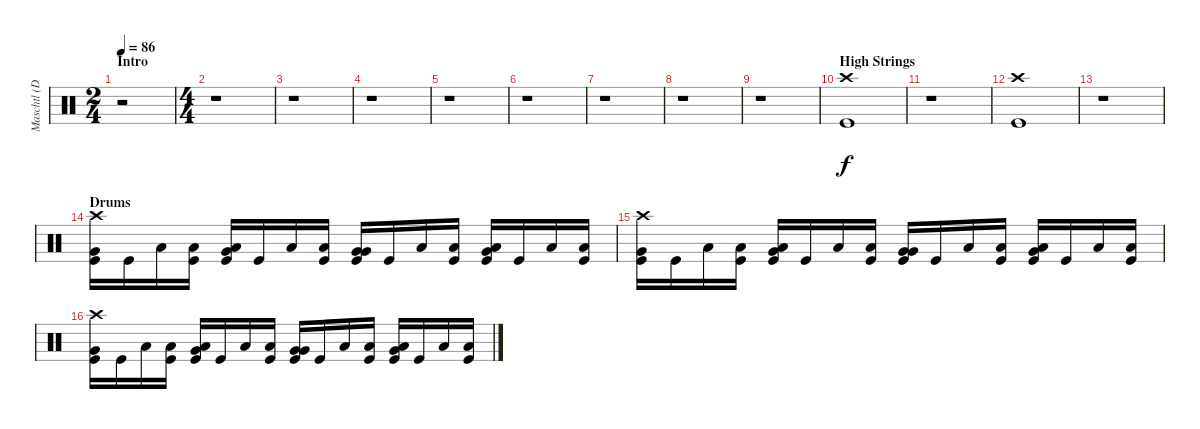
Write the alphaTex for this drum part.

\track ("Maschtl (Drums)" "Maschtl (D") {instrument percussion}
\staff {score}
\articulation defaults
\ts (2 4)
\section ("" "Intro")
\tempo 86
\clef neutral
\ks c
r.2{dy f} |
\ts (4 4)
r.1 |
r.1 |
r.1 |
r.1 |
r.1 |
r.1 |
r.1 |
r.1 |
\section ("" "High Strings")
("Crash high (hit)" "Kick (hit)").1 |
r.1 |
("Crash high (hit)" "Kick (hit)").1 |
r.1 |
\section ("" "Drums")
("Crash high (hit)" "Very Low Tom (hit)" "Kick (hit)").16 "Kick (hit)".16 "Low Floor Tom (hit)".16 ("Low Floor Tom (hit)" "Kick (hit)").16 ("Low Tom (hit)" "Very Low Tom (hit)" "Kick (hit)").16{bd 120} "Kick (hit)".16 "Low Floor Tom (hit)".16 ("Low Floor Tom (hit)" "Kick (hit)").16 ("Very Low Tom (hit)" "Very Low Tom (hit)" "Kick (hit)").16{bd 120} "Kick (hit)".16 "Low Floor Tom (hit)".16 ("Low Floor Tom (hit)" "Kick (hit)").16 ("Low Tom (hit)" "Very Low Tom (hit)" "Kick (hit)").16{bd 120} "Kick (hit)".16 "Low Floor Tom (hit)".16 ("Low Floor Tom (hit)" "Kick (hit)").16 |
("Crash high (hit)" "Very Low Tom (hit)" "Kick (hit)").16 "Kick (hit)".16 "Low Floor Tom (hit)".16 ("Low Floor Tom (hit)" "Kick (hit)").16 ("Low Tom (hit)" "Very Low Tom (hit)" "Kick (hit)").16{bd 120} "Kick (hit)".16 "Low Floor Tom (hit)".16 ("Low Floor Tom (hit)" "Kick (hit)").16 ("Very Low Tom (hit)" "Very Low Tom (hit)" "Kick (hit)").16{bd 120} "Kick (hit)".16 "Low Floor Tom (hit)".16 ("Low Floor Tom (hit)" "Kick (hit)").16 ("Low Tom (hit)" "Very Low Tom (hit)" "Kick (hit)").16{bd 120} "Kick (hit)".16 "Low Floor Tom (hit)".16 ("Low Floor Tom (hit)" "Kick (hit)").16 |
("Crash high (hit)" "Very Low Tom (hit)" "Kick (hit)").16 "Kick (hit)".16 "Low Floor Tom (hit)".16 ("Low Floor Tom (hit)" "Kick (hit)").16 ("Low Tom (hit)" "Very Low Tom (hit)" "Kick (hit)").16{bd 120} "Kick (hit)".16 "Low Floor Tom (hit)".16 ("Low Floor Tom (hit)" "Kick (hit)").16 ("Very Low Tom (hit)" "Very Low Tom (hit)" "Kick (hit)").16{bd 120} "Kick (hit)".16 "Low Floor Tom (hit)".16 ("Low Floor Tom (hit)" "Kick (hit)").16 ("Low Tom (hit)" "Very Low Tom (hit)" "Kick (hit)").16{bd 120} "Kick (hit)".16 "Low Floor Tom (hit)".16 ("Low Floor Tom (hit)" "Kick (hit)").16
